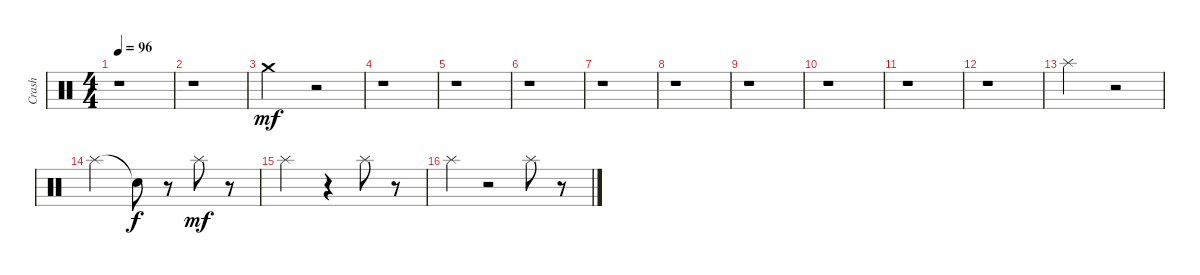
\track ("Crash" "Crash") {instrument percussion}
\staff {score}
\articulation defaults
\ts (4 4)
\tempo 96
\clef neutral
\ks c
r.1{dy mf} |
r.1 |
"Crash medium (hit)".2 r.2 |
r.1 |
r.1 |
r.1 |
r.1 |
r.1 |
r.1 |
r.1 |
r.1 |
r.1 |
"Splash (hit)".2 r.2 |
"Splash (hit)".2 "Snare (hit)"{t}.8{dy f} r.8 "Splash (hit)".8{dy mf} r.8 |
"Splash (hit)".2 r.4 "Splash (hit)".8 r.8 |
"Splash (hit)".4 r.2 "Splash (hit)".8 r.8
